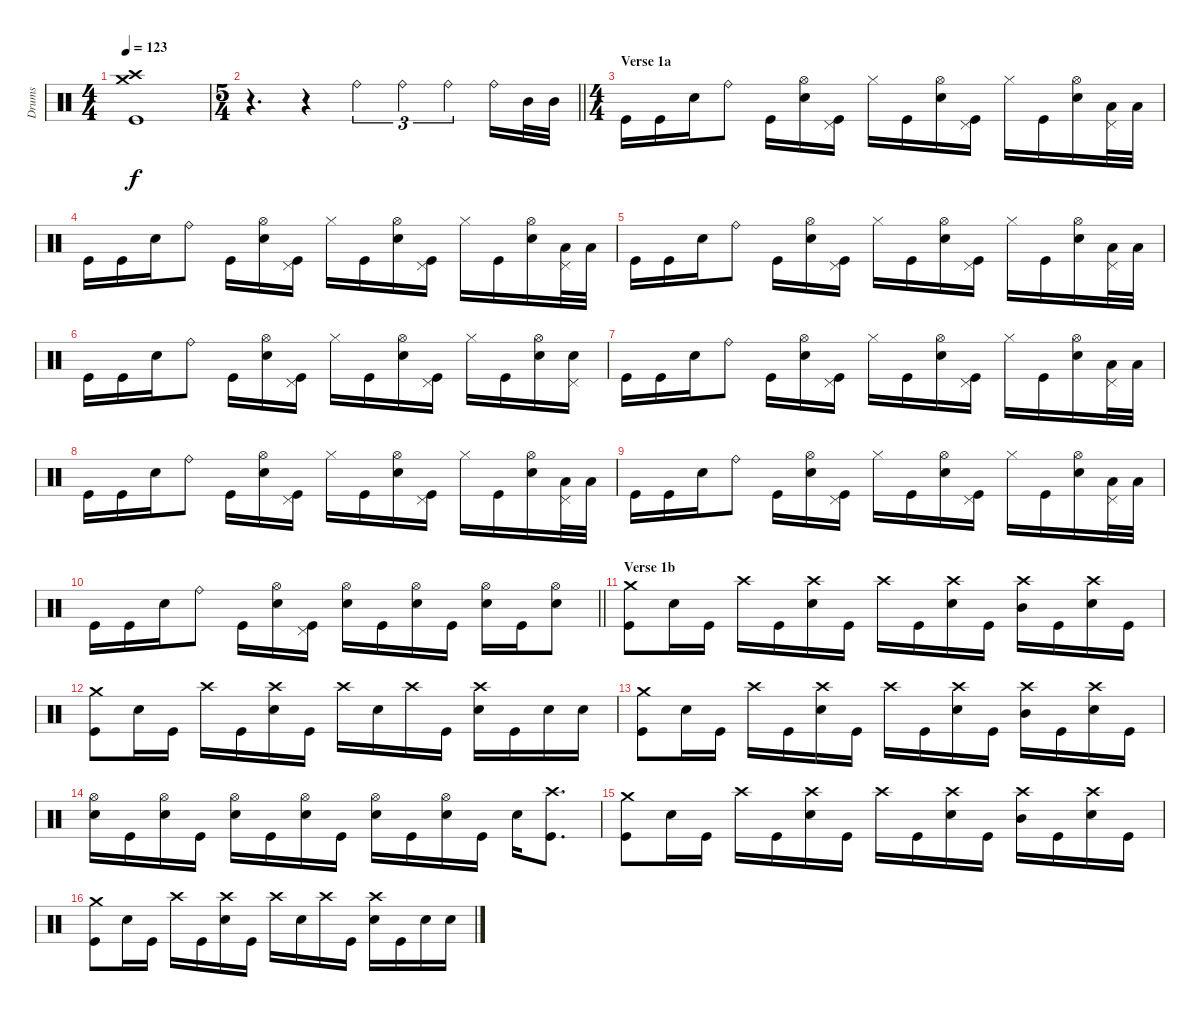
\track ("Drums" "Drums") {instrument percussion}
\staff {score}
\articulation defaults
\ts (4 4)
\tempo 123
\clef neutral
\ks c
("Crash medium (hit)" "Crash high (hit)" "Kick (hit)").1{dy f} |
\ts (5 4)
\barLineRight lightlight
r.4{d} r.4 "Ride (bell)".4{tu (3 2)} "Ride (bell)".4{tu (3 2)} "Ride (bell)".4{tu (3 2)} "Ride (bell)".16 "Mid Tom (hit)".32 "Mid Tom (hit)".32 |
\ts (4 4)
\section ("" "Verse 1a")
"Kick (hit)".16 "Kick (hit)".16 "Snare (hit) 2".16 "Ride (bell)".8 "Kick (hit)".16 ("Hi-Hat (open)" "Snare (hit) 2").16 ("Pedal Hi-Hat (hit)" "Kick (hit)").16 "Hi-Hat (closed)".16 "Kick (hit)".16 ("Hi-Hat (open)" "Snare (hit) 2").16 ("Pedal Hi-Hat (hit)" "Kick (hit)").16 "Hi-Hat (closed)".16 "Kick (hit)".16 ("Hi-Hat (open)" "Snare (hit) 2").16 ("Pedal Hi-Hat (hit)" "Low Tom (hit)").32 "Low Tom (hit)".32 |
"Kick (hit)".16 "Kick (hit)".16 "Snare (hit) 2".16 "Ride (bell)".8 "Kick (hit)".16 ("Hi-Hat (open)" "Snare (hit) 2").16 ("Pedal Hi-Hat (hit)" "Kick (hit)").16 "Hi-Hat (closed)".16 "Kick (hit)".16 ("Hi-Hat (open)" "Snare (hit) 2").16 ("Pedal Hi-Hat (hit)" "Kick (hit)").16 "Hi-Hat (closed)".16 "Kick (hit)".16 ("Hi-Hat (open)" "Snare (hit) 2").16 ("Pedal Hi-Hat (hit)" "Low Tom (hit)").32 "Low Tom (hit)".32 |
"Kick (hit)".16 "Kick (hit)".16 "Snare (hit) 2".16 "Ride (bell)".8 "Kick (hit)".16 ("Hi-Hat (open)" "Snare (hit) 2").16 ("Pedal Hi-Hat (hit)" "Kick (hit)").16 "Hi-Hat (closed)".16 "Kick (hit)".16 ("Hi-Hat (open)" "Snare (hit) 2").16 ("Pedal Hi-Hat (hit)" "Kick (hit)").16 "Hi-Hat (closed)".16 "Kick (hit)".16 ("Hi-Hat (open)" "Snare (hit) 2").16 ("Pedal Hi-Hat (hit)" "Low Tom (hit)").32 "Low Tom (hit)".32 |
"Kick (hit)".16 "Kick (hit)".16 "Snare (hit) 2".16 "Ride (bell)".8 "Kick (hit)".16 ("Hi-Hat (open)" "Snare (hit) 2").16 ("Pedal Hi-Hat (hit)" "Kick (hit)").16 "Hi-Hat (closed)".16 "Kick (hit)".16 ("Hi-Hat (open)" "Snare (hit) 2").16 ("Pedal Hi-Hat (hit)" "Kick (hit)").16 "Hi-Hat (closed)".16 "Kick (hit)".16 ("Hi-Hat (open)" "Snare (hit) 2").16 ("Pedal Hi-Hat (hit)" "Snare (hit) 2").16 |
"Kick (hit)".16 "Kick (hit)".16 "Snare (hit) 2".16 "Ride (bell)".8 "Kick (hit)".16 ("Hi-Hat (open)" "Snare (hit) 2").16 ("Pedal Hi-Hat (hit)" "Kick (hit)").16 "Hi-Hat (closed)".16 "Kick (hit)".16 ("Hi-Hat (open)" "Snare (hit) 2").16 ("Pedal Hi-Hat (hit)" "Kick (hit)").16 "Hi-Hat (closed)".16 "Kick (hit)".16 ("Hi-Hat (open)" "Snare (hit) 2").16 ("Pedal Hi-Hat (hit)" "Low Tom (hit)").32 "Low Tom (hit)".32 |
"Kick (hit)".16 "Kick (hit)".16 "Snare (hit) 2".16 "Ride (bell)".8 "Kick (hit)".16 ("Hi-Hat (open)" "Snare (hit) 2").16 ("Pedal Hi-Hat (hit)" "Kick (hit)").16 "Hi-Hat (closed)".16 "Kick (hit)".16 ("Hi-Hat (open)" "Snare (hit) 2").16 ("Pedal Hi-Hat (hit)" "Kick (hit)").16 "Hi-Hat (closed)".16 "Kick (hit)".16 ("Hi-Hat (open)" "Snare (hit) 2").16 ("Pedal Hi-Hat (hit)" "Low Tom (hit)").32 "Low Tom (hit)".32 |
"Kick (hit)".16 "Kick (hit)".16 "Snare (hit) 2".16 "Ride (bell)".8 "Kick (hit)".16 ("Hi-Hat (open)" "Snare (hit) 2").16 ("Pedal Hi-Hat (hit)" "Kick (hit)").16 "Hi-Hat (closed)".16 "Kick (hit)".16 ("Hi-Hat (open)" "Snare (hit) 2").16 ("Pedal Hi-Hat (hit)" "Kick (hit)").16 "Hi-Hat (closed)".16 "Kick (hit)".16 ("Hi-Hat (open)" "Snare (hit) 2").16 ("Pedal Hi-Hat (hit)" "Low Tom (hit)").32 "Low Tom (hit)".32 |
\barLineRight lightlight "Kick (hit)".16 "Kick (hit)".16 "Snare (hit) 2".16 "Ride (bell)".8 "Kick (hit)".16
("Hi-Hat (open)" "Snare (hit) 2").16 ("Pedal Hi-Hat (hit)" "Kick (hit)").16 ("Hi-Hat (open)" "Snare (hit) 2").16 "Kick (hit)".16 ("Hi-Hat (open)" "Snare (hit) 2").16 "Kick (hit)".16 ("Hi-Hat (open)" "Snare (hit) 2").16 "Kick (hit)".16 ("Hi-Hat (open)" "Snare (hit) 2").8 |
\section ("" "Verse 1b")
("Crash medium (hit)" "Kick (hit)").8 "Snare (hit) 2".16 "Kick (hit)".16 "Crash high (hit)".16 "Kick (hit)".16 ("Crash high (hit)" "Snare (hit) 2").16 "Kick (hit)".16 "Crash high (hit)".16 "Kick (hit)".16 ("Crash high (hit)" "Snare (hit) 2").16 "Kick (hit)".16 ("Crash high (hit)" "Mid Tom (hit)").16 "Kick (hit)".16 ("Crash high (hit)" "Snare (hit) 2").16 "Kick (hit)".16 |
("Crash medium (hit)" "Kick (hit)").8 "Snare (hit) 2".16 "Kick (hit)".16 "Crash high (hit)".16 "Kick (hit)".16 ("Crash high (hit)" "Snare (hit) 2").16 "Kick (hit)".16 "Crash high (hit)".16 "Snare (hit) 2".16 "Crash high (hit)".16 "Kick (hit)".16 ("Crash high (hit)" "Snare (hit) 2").16 "Kick (hit)".16 "Snare (hit) 2".16 "Snare (hit) 2".16 |
("Crash medium (hit)" "Kick (hit)").8 "Snare (hit) 2".16 "Kick (hit)".16 "Crash high (hit)".16 "Kick (hit)".16 ("Crash high (hit)" "Snare (hit) 2").16 "Kick (hit)".16 "Crash high (hit)".16 "Kick (hit)".16 ("Crash high (hit)" "Snare (hit) 2").16 "Kick (hit)".16 ("Crash high (hit)" "Mid Tom (hit)").16 "Kick (hit)".16 ("Crash high (hit)" "Snare (hit) 2").16 "Kick (hit)".16 |
("Hi-Hat (open)" "Snare (hit) 2").16 "Kick (hit)".16 ("Hi-Hat (open)" "Snare (hit) 2").16 "Kick (hit)".16 ("Hi-Hat (open)" "Snare (hit) 2").16 "Kick (hit)".16 ("Hi-Hat (open)" "Snare (hit) 2").16 "Kick (hit)".16 ("Hi-Hat (open)" "Snare (hit) 2").16 "Kick (hit)".16 ("Hi-Hat (open)" "Snare (hit) 2").16 "Kick (hit)".16 "Snare (hit) 2".16 ("Crash high (hit)" "Kick (hit)").8{d} |
("Crash medium (hit)" "Kick (hit)").8 "Snare (hit) 2".16 "Kick (hit)".16 "Crash high (hit)".16 "Kick (hit)".16 ("Crash high (hit)" "Snare (hit) 2").16 "Kick (hit)".16 "Crash high (hit)".16 "Kick (hit)".16 ("Crash high (hit)" "Snare (hit) 2").16 "Kick (hit)".16 ("Crash high (hit)" "Mid Tom (hit)").16 "Kick (hit)".16 ("Crash high (hit)" "Snare (hit) 2").16 "Kick (hit)".16 |
("Crash medium (hit)" "Kick (hit)").8 "Snare (hit) 2".16 "Kick (hit)".16 "Crash high (hit)".16 "Kick (hit)".16 ("Crash high (hit)" "Snare (hit) 2").16 "Kick (hit)".16 "Crash high (hit)".16 "Snare (hit) 2".16 "Crash high (hit)".16 "Kick (hit)".16 ("Crash high (hit)" "Snare (hit) 2").16 "Kick (hit)".16 "Snare (hit) 2".16 "Snare (hit) 2".16
